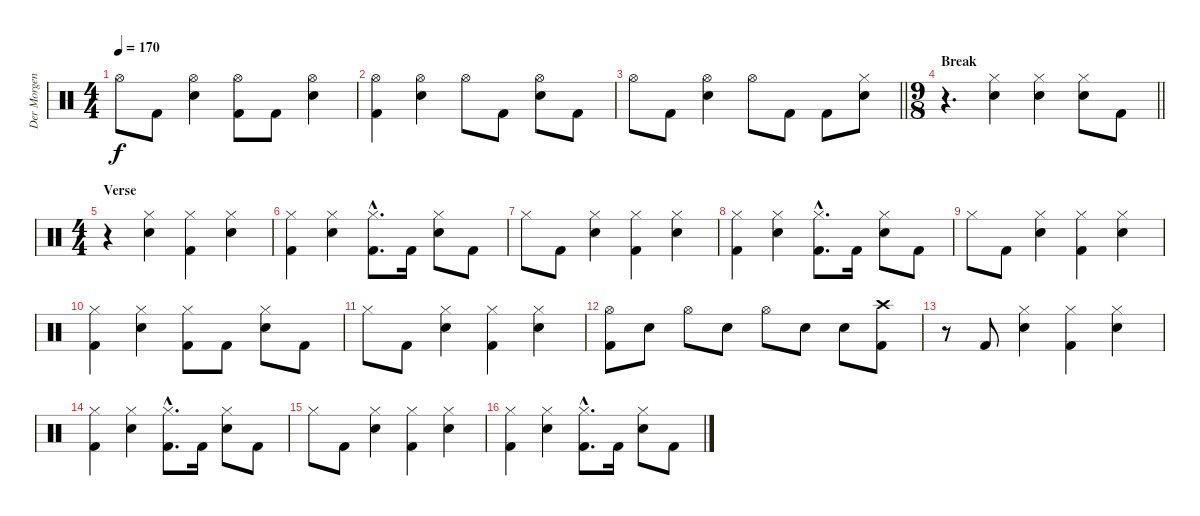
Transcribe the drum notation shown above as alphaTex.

\track ("Der Morgenstern" "Der Morgen") {instrument percussion}
\staff {score}
\articulation defaults
\ts (4 4)
\tempo 170
\clef neutral
\ks c "Hi-Hat (open)".8{dy f} "Kick (hit) 2".8
("Hi-Hat (open)" "Electric Snare (hit)").4 ("Hi-Hat (open)" "Kick (hit) 2").8 "Kick (hit) 2".8 ("Hi-Hat (open)" "Electric Snare (hit)").4 |
("Hi-Hat (open)" "Kick (hit) 2").4 ("Hi-Hat (open)" "Electric Snare (hit)").4 "Hi-Hat (open)".8 "Kick (hit) 2".8 ("Hi-Hat (open)" "Electric Snare (hit)").8 "Kick (hit) 2".8 |
\barLineRight lightlight "Hi-Hat (open)".8 "Kick (hit) 2".8
("Hi-Hat (open)" "Electric Snare (hit)").4 "Hi-Hat (open)".8 "Kick (hit) 2".8 "Kick (hit) 2".8 ("Hi-Hat (closed)" "Electric Snare (hit)").8 |
\ts (9 8)
\section ("" "Break")
\barLineRight lightlight
r.4{d} ("Hi-Hat (closed)" "Electric Snare (hit)").4 ("Hi-Hat (closed)" "Electric Snare (hit)").4 ("Hi-Hat (closed)" "Electric Snare (hit)").8 "Kick (hit) 2".8 |
\ts (4 4)
\section ("" "Verse")
r.4 ("Hi-Hat (closed)" "Electric Snare (hit)").4 ("Hi-Hat (closed)" "Kick (hit) 2").4 ("Hi-Hat (closed)" "Electric Snare (hit)").4 |
("Hi-Hat (closed)" "Kick (hit) 2").4 ("Hi-Hat (closed)" "Electric Snare (hit)").4 ("Hi-Hat (closed)"{hac} "Kick (hit) 2"{hac}).8{d} "Kick (hit) 2".16 ("Hi-Hat (closed)" "Electric Snare (hit)").8 "Kick (hit) 2".8 |
"Hi-Hat (closed)".8 "Kick (hit) 2".8 ("Hi-Hat (closed)" "Electric Snare (hit)").4 ("Hi-Hat (closed)" "Kick (hit) 2").4 ("Hi-Hat (closed)" "Electric Snare (hit)").4 |
("Hi-Hat (closed)" "Kick (hit) 2").4 ("Hi-Hat (closed)" "Electric Snare (hit)").4 ("Hi-Hat (closed)"{hac} "Kick (hit) 2"{hac}).8{d} "Kick (hit) 2".16 ("Hi-Hat (closed)" "Electric Snare (hit)").8 "Kick (hit) 2".8 |
"Hi-Hat (closed)".8 "Kick (hit) 2".8 ("Hi-Hat (closed)" "Electric Snare (hit)").4 ("Hi-Hat (closed)" "Kick (hit) 2").4 ("Hi-Hat (closed)" "Electric Snare (hit)").4 |
("Hi-Hat (closed)" "Kick (hit) 2").4 ("Hi-Hat (closed)" "Electric Snare (hit)").4 ("Hi-Hat (closed)" "Kick (hit) 2").8 "Kick (hit) 2".8 ("Hi-Hat (closed)" "Electric Snare (hit)").8 "Kick (hit) 2".8 |
"Hi-Hat (closed)".8 "Kick (hit) 2".8 ("Hi-Hat (closed)" "Electric Snare (hit)").4 ("Hi-Hat (closed)" "Kick (hit) 2").4 ("Hi-Hat (closed)" "Electric Snare (hit)").4 |
("Hi-Hat (open)" "Kick (hit) 2").8 "Electric Snare (hit)".8 "Hi-Hat (open)".8 "Electric Snare (hit)".8 "Hi-Hat (open)".8 "Electric Snare (hit)".8 "Electric Snare (hit)".8 ("Crash high (hit)" "Kick (hit) 2").8 |
r.8 "Kick (hit) 2".8 ("Hi-Hat (closed)" "Electric Snare (hit)").4 ("Hi-Hat (closed)" "Kick (hit) 2").4 ("Hi-Hat (closed)" "Electric Snare (hit)").4 |
("Hi-Hat (closed)" "Kick (hit) 2").4 ("Hi-Hat (closed)" "Electric Snare (hit)").4 ("Hi-Hat (closed)"{hac} "Kick (hit) 2"{hac}).8{d} "Kick (hit) 2".16 ("Hi-Hat (closed)" "Electric Snare (hit)").8 "Kick (hit) 2".8 |
"Hi-Hat (closed)".8 "Kick (hit) 2".8 ("Hi-Hat (closed)" "Electric Snare (hit)").4 ("Hi-Hat (closed)" "Kick (hit) 2").4 ("Hi-Hat (closed)" "Electric Snare (hit)").4 |
("Hi-Hat (closed)" "Kick (hit) 2").4 ("Hi-Hat (closed)" "Electric Snare (hit)").4 ("Hi-Hat (closed)"{hac} "Kick (hit) 2"{hac}).8{d} "Kick (hit) 2".16 ("Hi-Hat (closed)" "Electric Snare (hit)").8 "Kick (hit) 2".8
